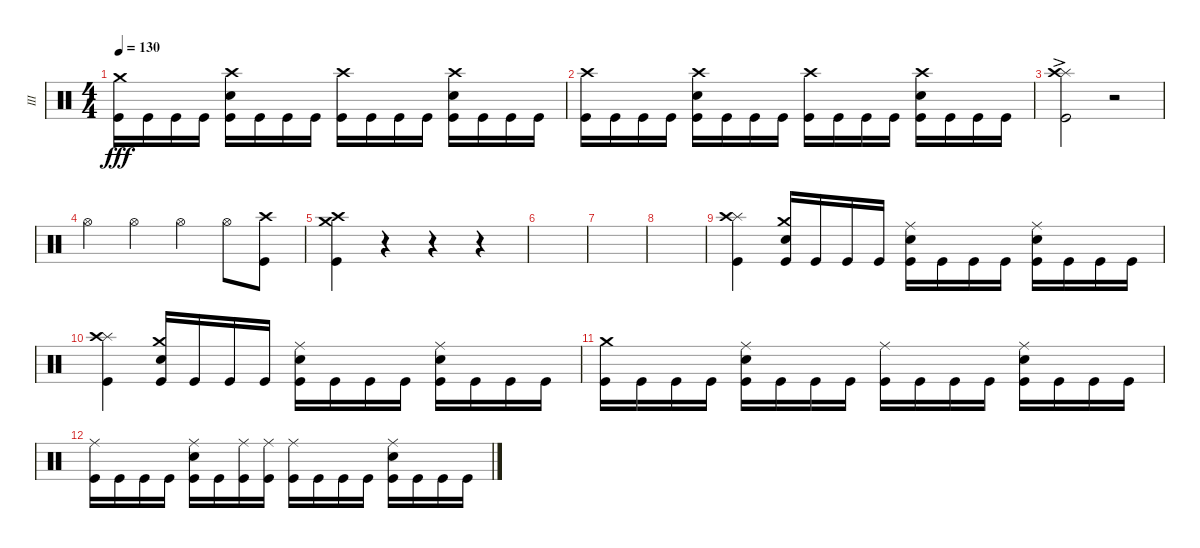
\track ("III" "III") {instrument percussion}
\staff {score}
\articulation defaults
\ts (4 4)
\tempo 130
\clef neutral
\ks c
("Kick (hit)" "Crash medium (hit)").16{dy fff} "Kick (hit)".16 "Kick (hit)".16 "Kick (hit)".16 ("Snare (hit) 2" "Kick (hit)" "Crash high (hit)").16 "Kick (hit)".16 "Kick (hit)".16 "Kick (hit)".16 ("Kick (hit)" "Crash high (hit)").16 "Kick (hit)".16 "Kick (hit)".16 "Kick (hit)".16 ("Snare (hit) 2" "Kick (hit)" "Crash high (hit)").16 "Kick (hit)".16 "Kick (hit)".16 "Kick (hit)".16 |
("Kick (hit)" "Crash high (hit)").16 "Kick (hit)".16 "Kick (hit)".16 "Kick (hit)".16 ("Snare (hit) 2" "Kick (hit)" "Crash high (hit)").16 "Kick (hit)".16 "Kick (hit)".16 "Kick (hit)".16 ("Kick (hit)" "Crash high (hit)").16 "Kick (hit)".16 "Kick (hit)".16 "Kick (hit)".16 ("Snare (hit) 2" "Kick (hit)" "Crash high (hit)").16 "Kick (hit)".16 "Kick (hit)".16 "Kick (hit)".16 |
("Splash (hit)"{ac} "Crash high (hit)"{ac} "Kick (hit)"{ac}).2 r.2 |
"Hi-Hat (open)".4 "Hi-Hat (open)".4 "Hi-Hat (open)".4 "Hi-Hat (open)".8 ("Kick (hit)" "Crash high (hit)").8 |
("Kick (hit)" "Crash high (hit)" "Crash medium (hit)").4 r.4 r.4 r.4 |
|
|
|
("Splash (hit)" "Crash high (hit)" "Kick (hit)").4 ("Kick (hit)" "Snare (hit) 2" "Crash medium (hit)").16 "Kick (hit)".16 "Kick (hit)".16 "Kick (hit)".16 ("Snare (hit) 2" "Kick (hit)" "Ride (middle)").16 "Kick (hit)".16 "Kick (hit)".16 "Kick (hit)".16 ("Snare (hit) 2" "Kick (hit)" "Ride (middle)").16 "Kick (hit)".16 "Kick (hit)".16 "Kick (hit)".16 |
("Splash (hit)" "Crash high (hit)" "Kick (hit)").4 ("Kick (hit)" "Snare (hit) 2" "Crash medium (hit)").16 "Kick (hit)".16 "Kick (hit)".16 "Kick (hit)".16 ("Snare (hit) 2" "Kick (hit)" "Ride (middle)").16 "Kick (hit)".16 "Kick (hit)".16 "Kick (hit)".16 ("Snare (hit) 2" "Kick (hit)" "Ride (middle)").16 "Kick (hit)".16 "Kick (hit)".16 "Kick (hit)".16 |
("Kick (hit)" "Crash medium (hit)").16 "Kick (hit)".16 "Kick (hit)".16 "Kick (hit)".16 ("Snare (hit) 2" "Kick (hit)" "Ride (middle)").16 "Kick (hit)".16 "Kick (hit)".16 "Kick (hit)".16 ("Kick (hit)" "Ride (middle)").16 "Kick (hit)".16 "Kick (hit)".16 "Kick (hit)".16 ("Snare (hit) 2" "Kick (hit)" "Ride (middle)").16 "Kick (hit)".16 "Kick (hit)".16 "Kick (hit)".16 |
("Kick (hit)" "Ride (middle)").16 "Kick (hit)".16 "Kick (hit)".16 "Kick (hit)".16 ("Snare (hit) 2" "Kick (hit)" "Ride (middle)").16 "Kick (hit)".16 ("Ride (middle)" "Kick (hit)").16 ("Ride (middle)" "Kick (hit)").16 ("Kick (hit)" "Ride (middle)").16 "Kick (hit)".16 "Kick (hit)".16 "Kick (hit)".16 ("Snare (hit) 2" "Kick (hit)" "Ride (middle)").16 "Kick (hit)".16 "Kick (hit)".16 "Kick (hit)".16
